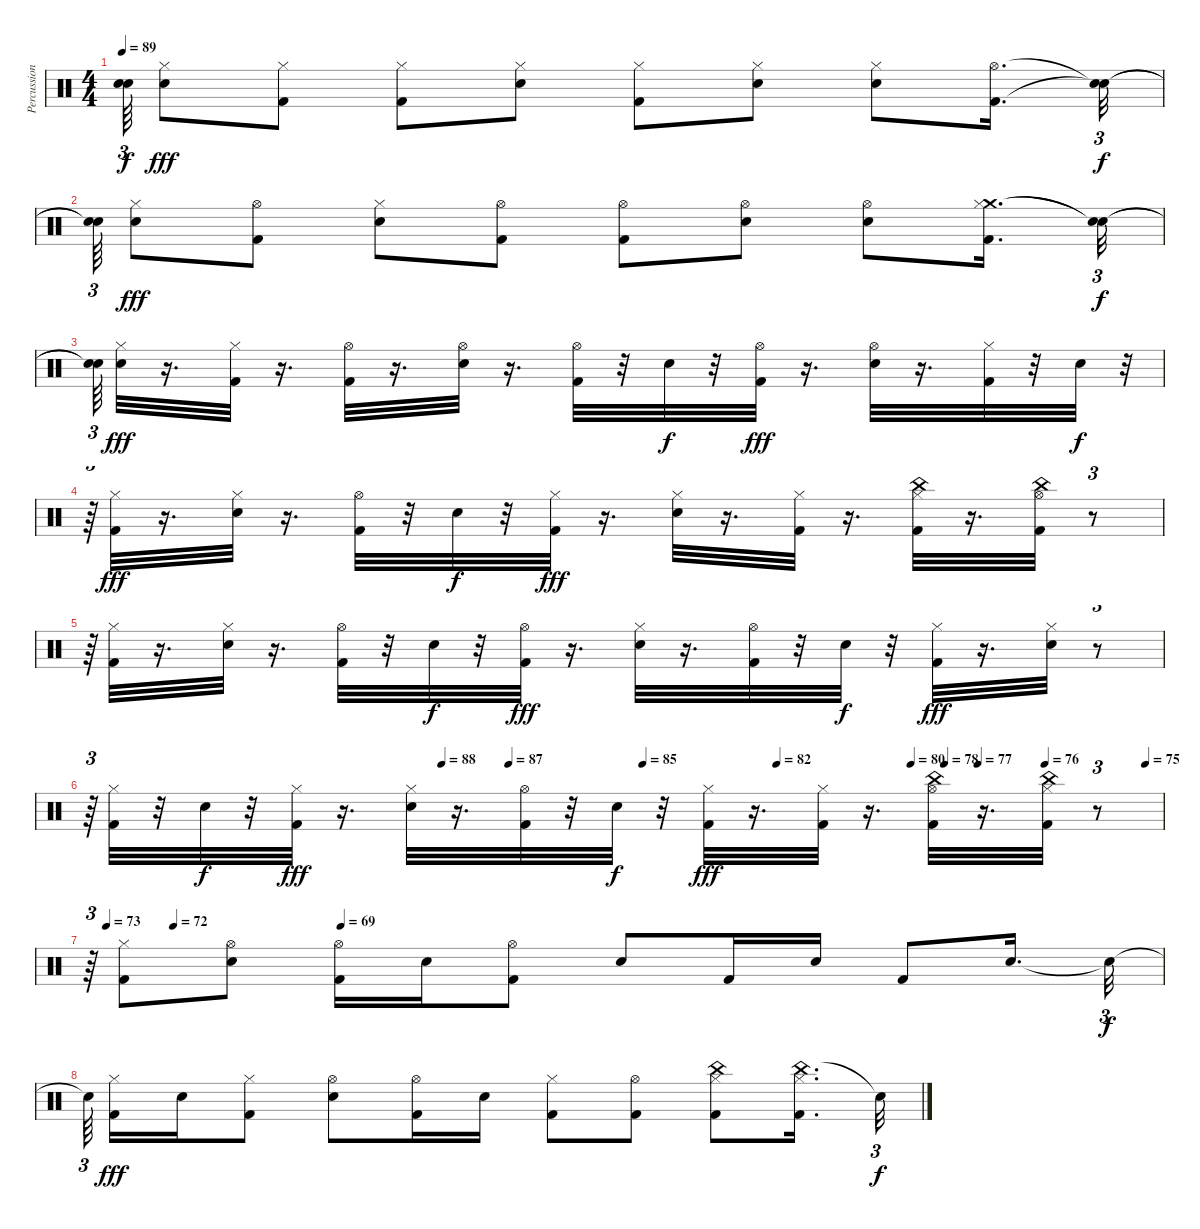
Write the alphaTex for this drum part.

\track ("Percussioni" "Percussion") {instrument percussion}
\staff {score}
\articulation defaults
\ts (4 4)
\tempo 89
\clef neutral
\ks c
("Snare (hit)"{t} "Snare (hit)"{t}).64{tu (3 2) dy f} ("Hi-Hat (closed)" "Snare (hit) 2").8{dy fff} ("Hi-Hat (closed)" "Kick (hit) 2").8 ("Hi-Hat (closed)" "Kick (hit) 2").8 ("Hi-Hat (closed)" "Snare (hit) 2").8 ("Hi-Hat (closed)" "Kick (hit) 2").8 ("Hi-Hat (closed)" "Snare (hit) 2").8 ("Hi-Hat (closed)" "Snare (hit) 2").8 ("Hi-Hat (open)" "Kick (hit) 2").16{d} ("Snare (hit)"{t} "Snare (hit)"{t}).32{tu (3 2) dy f} |
("Snare (hit)"{t} "Snare (hit)"{t}).64{tu (3 2)} ("Hi-Hat (closed)" "Snare (hit) 2").8{dy fff} ("Hi-Hat (open)" "Kick (hit) 2").8 ("Hi-Hat (closed)" "Snare (hit) 2").8 ("Hi-Hat (open)" "Kick (hit) 2").8 ("Hi-Hat (open)" "Kick (hit) 2").8 ("Hi-Hat (open)" "Snare (hit) 2").8 ("Hi-Hat (open)" "Snare (hit) 2").8 ("Crash medium (hit)" "Hi-Hat (closed)" "Kick (hit) 2").16{d} ("Snare (hit)"{t} "Snare (hit)"{t}).32{tu (3 2) dy f} |
("Snare (hit)"{t} "Snare (hit)"{t}).64{tu (3 2)} ("Hi-Hat (closed)" "Snare (hit) 2").32{dy fff} r.16{d} ("Hi-Hat (closed)" "Kick (hit) 2").32 r.16{d} ("Hi-Hat (open)" "Kick (hit) 2").32 r.16{d} ("Hi-Hat (open)" "Snare (hit) 2").32 r.16{d} ("Hi-Hat (open)" "Kick (hit) 2").32 r.32 "Snare (hit) 2".32{dy f} r.32 ("Hi-Hat (open)" "Kick (hit) 2").32{dy fff} r.16{d} ("Hi-Hat (open)" "Snare (hit) 2").32 r.16{d} ("Hi-Hat (closed)" "Kick (hit) 2").32 r.32 "Snare (hit) 2".32{dy f} r.32{tu (3 2)} |
r.64{tu (3 2)} ("Hi-Hat (closed)" "Kick (hit) 2").32{dy fff} r.16{d} ("Hi-Hat (closed)" "Snare (hit) 2").32 r.16{d} ("Hi-Hat (open)" "Kick (hit) 2").32 r.32 "Snare (hit) 2".32{dy f} r.32 ("Hi-Hat (closed)" "Kick (hit) 2").32{dy fff} r.16{d} ("Hi-Hat (closed)" "Snare (hit) 2").32 r.16{d} ("Hi-Hat (closed)" "Kick (hit) 2").32 r.16{d} ("China (hit)" "Hi-Hat (closed)" "Kick (hit) 2").32 r.16{d} ("China (hit)" "Hi-Hat (open)" "Kick (hit) 2").32 r.8{tu (3 2)} |
r.64{tu (3 2)} ("Hi-Hat (closed)" "Kick (hit) 2").32 r.16{d} ("Hi-Hat (closed)" "Snare (hit) 2").32 r.16{d} ("Hi-Hat (open)" "Kick (hit) 2").32 r.32 "Snare (hit) 2".32{dy f} r.32 ("Hi-Hat (open)" "Kick (hit) 2").32{dy fff} r.16{d} ("Hi-Hat (closed)" "Snare (hit) 2").32 r.16{d} ("Hi-Hat (open)" "Kick (hit) 2").32 r.32 "Snare (hit) 2".32{dy f} r.32 ("Hi-Hat (closed)" "Kick (hit) 2").32{dy fff} r.16{d} ("Hi-Hat (closed)" "Snare (hit) 2").32 r.8{tu (3 2)} |
\tempo (88 0.328125)
\tempo (87 0.390625)
\tempo (85 0.515625)
\tempo (82 0.640625)
\tempo (80 0.765625)
\tempo (78 0.796875)
\tempo (77 0.828125)
\tempo (76 0.890625)
\tempo (75 0.984375)
r.64{tu (3 2)} ("Hi-Hat (closed)" "Kick (hit) 2").32 r.32 "Snare (hit) 2".32{dy f} r.32 ("Hi-Hat (closed)" "Kick (hit) 2").32{dy fff} r.16{d} ("Hi-Hat (closed)" "Snare (hit) 2").32 r.16{d} ("Hi-Hat (open)" "Kick (hit) 2").32 r.32 "Snare (hit) 2".32{dy f} r.32 ("Hi-Hat (closed)" "Kick (hit) 2").32{dy fff} r.16{d} ("Hi-Hat (closed)" "Kick (hit) 2").32 r.16{d} ("China (hit)" "Hi-Hat (open)" "Kick (hit) 2").32 r.16{d} ("China (hit)" "Hi-Hat (closed)" "Kick (hit) 2").32 r.8{tu (3 2)} |
\tempo (73 0.015625)
\tempo (72 0.078125)
\tempo (69 0.234375)
r.64{tu (3 2)} ("Hi-Hat (closed)" "Kick (hit) 2").8 ("Hi-Hat (open)" "Snare (hit) 2").8 ("Hi-Hat (open)" "Kick (hit) 2").16 "Snare (hit) 2".16 ("Hi-Hat (open)" "Kick (hit) 2").8 "Snare (hit) 2".8 "Kick (hit) 2".16 "Snare (hit) 2".16 "Kick (hit) 2".8 "Snare (hit) 2".16{d} "Snare (hit)"{t}.32{tu (3 2) dy f} |
"Snare (hit)"{t}.64{tu (3 2) beam splitsecondary} ("Hi-Hat (closed)" "Kick (hit) 2").16{dy fff} "Snare (hit) 2".16 ("Hi-Hat (closed)" "Kick (hit) 2").8 ("Hi-Hat (open)" "Snare (hit) 2").8 ("Hi-Hat (open)" "Kick (hit) 2").16 "Snare (hit) 2".16 ("Hi-Hat (closed)" "Kick (hit) 2").8 ("Hi-Hat (open)" "Kick (hit) 2").8 ("China (hit)" "Hi-Hat (closed)" "Kick (hit) 2").8 ("China (hit)" "Hi-Hat (closed)" "Kick (hit) 2").16{d} "Snare (hit)"{t}.32{tu (3 2) dy f}
